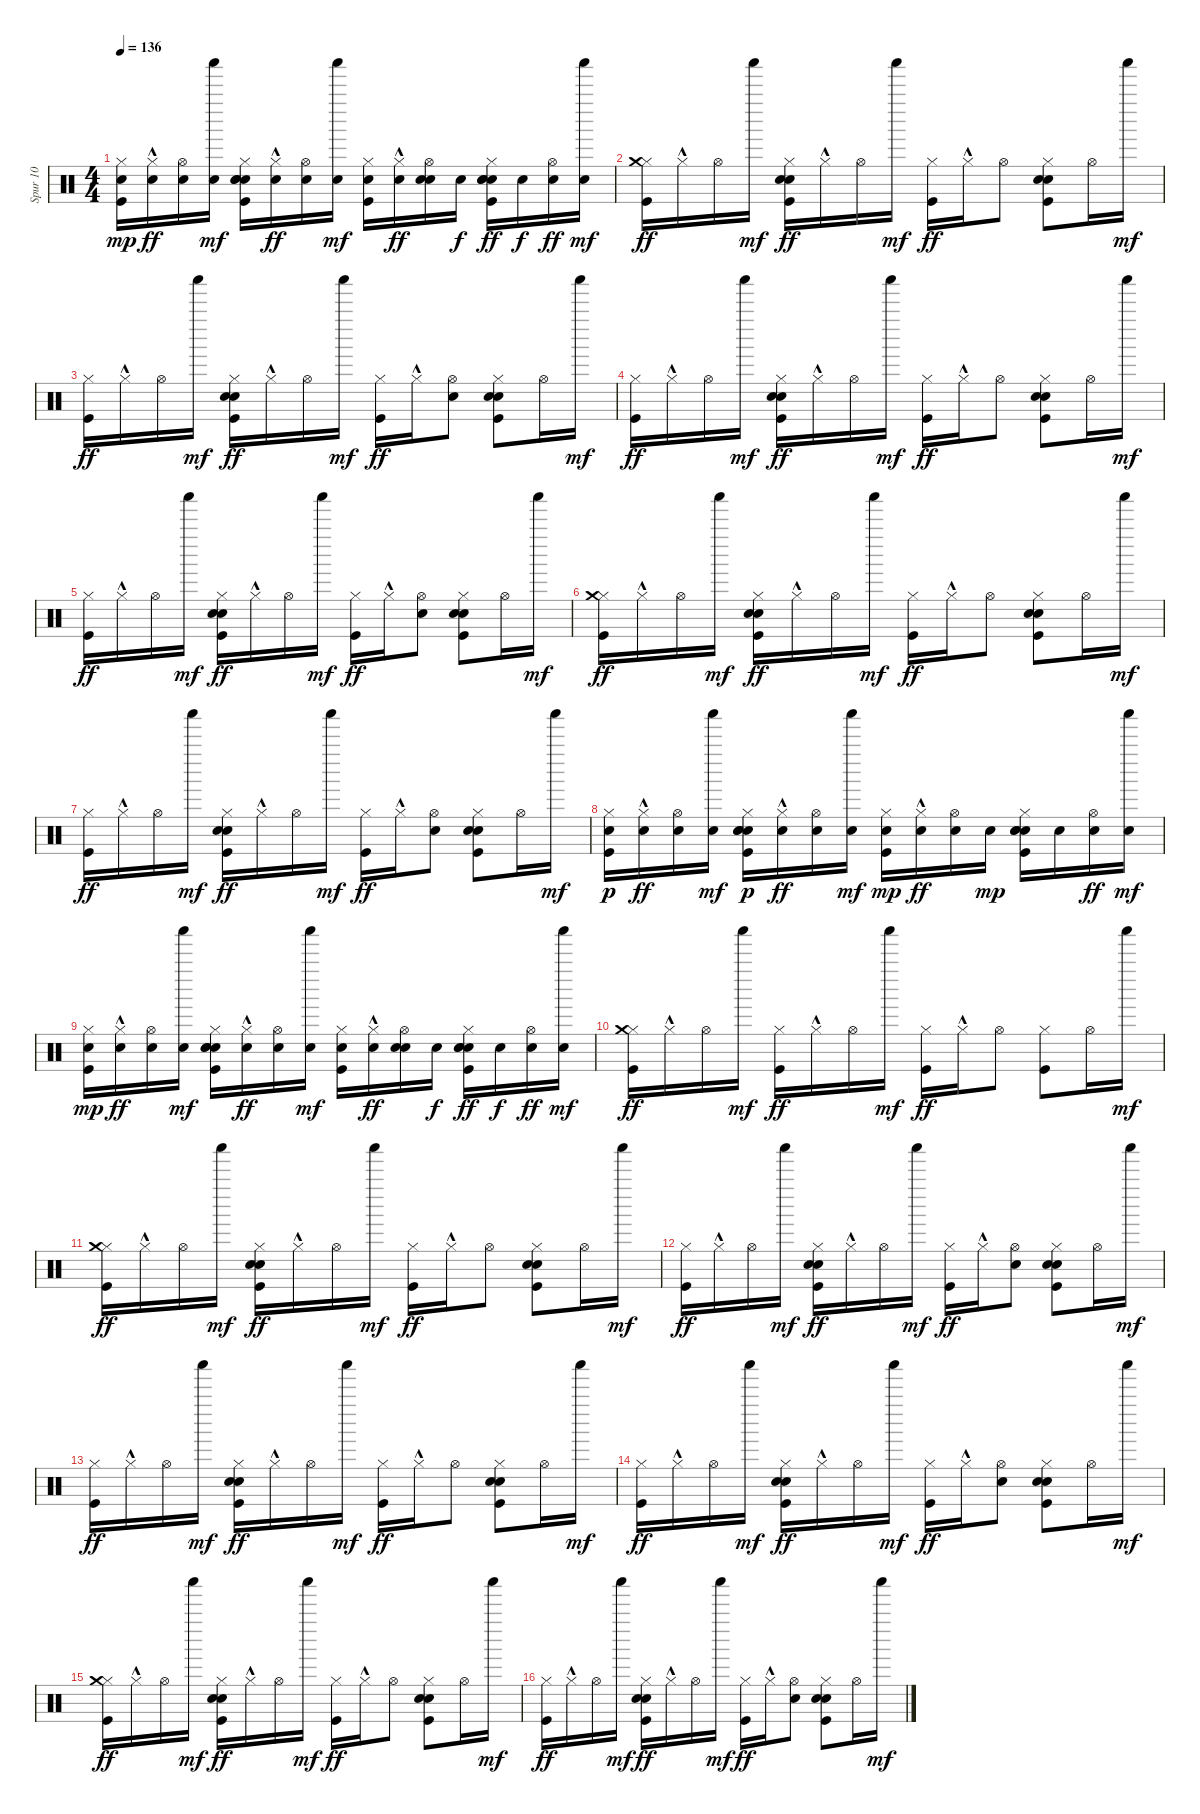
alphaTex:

\track ("Spur 10" "Spur 10") {instrument percussion}
\staff {score}
\articulation defaults
\ts (4 4)
\tempo 136
\clef neutral
\ks c
("Kick (hit)" "Snare (hit) 2" "Hi-Hat (closed)").16{dy mp} ("Snare (hit) 2" "Hi-Hat (closed)"{hac}).16{dy ff} ("Snare (hit) 2" "Hi-Hat (open)").16 ("Snare (hit) 2" "Shaker (hit)").16{dy mf} ("Kick (hit)" "Electric Snare (hit)" "Snare (hit) 2" "Hi-Hat (closed)" "Hand Clap (hit)").16 ("Snare (hit) 2" "Hi-Hat (closed)"{hac}).16{dy ff} ("Snare (hit) 2" "Hi-Hat (open)").16 ("Snare (hit) 2" "Shaker (hit)").16{dy mf} ("Kick (hit)" "Snare (hit) 2" "Hi-Hat (closed)").16 ("Snare (hit) 2" "Hi-Hat (closed)"{hac}).16{dy ff} ("Snare (hit) 2" "Hi-Hat (open)" "Hand Clap (hit)").16 "Snare (hit) 2".16{dy f} ("Kick (hit)" "Electric Snare (hit)" "Snare (hit) 2" "Hi-Hat (closed)" "Hand Clap (hit)").16{dy ff} "Snare (hit) 2".16{dy f} ("Snare (hit) 2" "Hi-Hat (open)").16{dy ff} ("Snare (hit) 2" "Shaker (hit)").16{dy mf} |
("Kick (hit)" "Hi-Hat (closed)" "Crash medium (hit)").16{dy ff} "Hi-Hat (closed)"{hac}.16 "Hi-Hat (open)".16 "Shaker (hit)".16{dy mf} ("Kick (hit)" "Electric Snare (hit)" "Hi-Hat (closed)" "Hand Clap (hit)").16{dy ff} "Hi-Hat (closed)"{hac}.16 "Hi-Hat (open)".16 "Shaker (hit)".16{dy mf} ("Kick (hit)" "Hi-Hat (closed)").16{dy ff} "Hi-Hat (closed)"{hac}.16 "Hi-Hat (open)".8 ("Kick (hit)" "Electric Snare (hit)" "Hi-Hat (closed)" "Hand Clap (hit)").8 "Hi-Hat (open)".16 "Shaker (hit)".16{dy mf} |
("Kick (hit)" "Hi-Hat (closed)").16{dy ff} "Hi-Hat (closed)"{hac}.16 "Hi-Hat (open)".16 "Shaker (hit)".16{dy mf} ("Kick (hit)" "Electric Snare (hit)" "Hi-Hat (closed)" "Hand Clap (hit)").16{dy ff} "Hi-Hat (closed)"{hac}.16 "Hi-Hat (open)".16 "Shaker (hit)".16{dy mf} ("Kick (hit)" "Hi-Hat (closed)").16{dy ff} "Hi-Hat (closed)"{hac}.16 ("Hi-Hat (open)" "Hand Clap (hit)").8 ("Kick (hit)" "Electric Snare (hit)" "Hi-Hat (closed)" "Hand Clap (hit)").8 "Hi-Hat (open)".16 "Shaker (hit)".16{dy mf} |
("Kick (hit)" "Hi-Hat (closed)").16{dy ff} "Hi-Hat (closed)"{hac}.16 "Hi-Hat (open)".16 "Shaker (hit)".16{dy mf} ("Kick (hit)" "Electric Snare (hit)" "Hi-Hat (closed)" "Hand Clap (hit)").16{dy ff} "Hi-Hat (closed)"{hac}.16 "Hi-Hat (open)".16 "Shaker (hit)".16{dy mf} ("Kick (hit)" "Hi-Hat (closed)").16{dy ff} "Hi-Hat (closed)"{hac}.16 "Hi-Hat (open)".8 ("Kick (hit)" "Electric Snare (hit)" "Hi-Hat (closed)" "Hand Clap (hit)").8 "Hi-Hat (open)".16 "Shaker (hit)".16{dy mf} |
("Kick (hit)" "Hi-Hat (closed)").16{dy ff} "Hi-Hat (closed)"{hac}.16 "Hi-Hat (open)".16 "Shaker (hit)".16{dy mf} ("Kick (hit)" "Electric Snare (hit)" "Hi-Hat (closed)" "Hand Clap (hit)").16{dy ff} "Hi-Hat (closed)"{hac}.16 "Hi-Hat (open)".16 "Shaker (hit)".16{dy mf} ("Kick (hit)" "Hi-Hat (closed)").16{dy ff} "Hi-Hat (closed)"{hac}.16 ("Hi-Hat (open)" "Hand Clap (hit)").8 ("Kick (hit)" "Electric Snare (hit)" "Hi-Hat (closed)" "Hand Clap (hit)").8 "Hi-Hat (open)".16 "Shaker (hit)".16{dy mf} |
("Kick (hit)" "Hi-Hat (closed)" "Crash medium (hit)").16{dy ff} "Hi-Hat (closed)"{hac}.16 "Hi-Hat (open)".16 "Shaker (hit)".16{dy mf} ("Kick (hit)" "Electric Snare (hit)" "Hi-Hat (closed)" "Hand Clap (hit)").16{dy ff} "Hi-Hat (closed)"{hac}.16 "Hi-Hat (open)".16 "Shaker (hit)".16{dy mf} ("Kick (hit)" "Hi-Hat (closed)").16{dy ff} "Hi-Hat (closed)"{hac}.16 "Hi-Hat (open)".8 ("Kick (hit)" "Electric Snare (hit)" "Hi-Hat (closed)" "Hand Clap (hit)").8 "Hi-Hat (open)".16 "Shaker (hit)".16{dy mf} |
("Kick (hit)" "Hi-Hat (closed)").16{dy ff} "Hi-Hat (closed)"{hac}.16 "Hi-Hat (open)".16 "Shaker (hit)".16{dy mf} ("Kick (hit)" "Electric Snare (hit)" "Hi-Hat (closed)" "Hand Clap (hit)").16{dy ff} "Hi-Hat (closed)"{hac}.16 "Hi-Hat (open)".16 "Shaker (hit)".16{dy mf} ("Kick (hit)" "Hi-Hat (closed)").16{dy ff} "Hi-Hat (closed)"{hac}.16 ("Hi-Hat (open)" "Hand Clap (hit)").8 ("Kick (hit)" "Electric Snare (hit)" "Hi-Hat (closed)" "Hand Clap (hit)").8 "Hi-Hat (open)".16 "Shaker (hit)".16{dy mf} |
("Kick (hit)" "Snare (hit) 2" "Hi-Hat (closed)").16{dy p} ("Snare (hit) 2" "Hi-Hat (closed)"{hac}).16{dy ff} ("Snare (hit) 2" "Hi-Hat (open)").16 ("Snare (hit) 2" "Shaker (hit)").16{dy mf} ("Kick (hit)" "Electric Snare (hit)" "Snare (hit) 2" "Hi-Hat (closed)" "Hand Clap (hit)").16{dy p} ("Snare (hit) 2" "Hi-Hat (closed)"{hac}).16{dy ff} ("Snare (hit) 2" "Hi-Hat (open)").16 ("Snare (hit) 2" "Shaker (hit)").16{dy mf} ("Kick (hit)" "Snare (hit) 2" "Hi-Hat (closed)").16{dy mp} ("Snare (hit) 2" "Hi-Hat (closed)"{hac}).16{dy ff} ("Snare (hit) 2" "Hi-Hat (open)").16 "Snare (hit) 2".16{dy mp} ("Kick (hit)" "Electric Snare (hit)" "Snare (hit) 2" "Hi-Hat (closed)" "Hand Clap (hit)").16 "Snare (hit) 2".16 ("Snare (hit) 2" "Hi-Hat (open)").16{dy ff} ("Snare (hit) 2" "Shaker (hit)").16{dy mf} |
("Kick (hit)" "Snare (hit) 2" "Hi-Hat (closed)").16{dy mp} ("Snare (hit) 2" "Hi-Hat (closed)"{hac}).16{dy ff} ("Snare (hit) 2" "Hi-Hat (open)").16 ("Snare (hit) 2" "Shaker (hit)").16{dy mf} ("Kick (hit)" "Electric Snare (hit)" "Snare (hit) 2" "Hi-Hat (closed)" "Hand Clap (hit)").16 ("Snare (hit) 2" "Hi-Hat (closed)"{hac}).16{dy ff} ("Snare (hit) 2" "Hi-Hat (open)").16 ("Snare (hit) 2" "Shaker (hit)").16{dy mf} ("Kick (hit)" "Snare (hit) 2" "Hi-Hat (closed)").16 ("Snare (hit) 2" "Hi-Hat (closed)"{hac}).16{dy ff} ("Snare (hit) 2" "Hi-Hat (open)" "Hand Clap (hit)").16 "Snare (hit) 2".16{dy f} ("Kick (hit)" "Electric Snare (hit)" "Snare (hit) 2" "Hi-Hat (closed)" "Hand Clap (hit)").16{dy ff} "Snare (hit) 2".16{dy f} ("Snare (hit) 2" "Hi-Hat (open)").16{dy ff} ("Snare (hit) 2" "Shaker (hit)").16{dy mf} |
("Kick (hit)" "Hi-Hat (closed)" "Crash medium (hit)").16{dy ff} "Hi-Hat (closed)"{hac}.16 "Hi-Hat (open)".16 "Shaker (hit)".16{dy mf} ("Kick (hit)" "Hi-Hat (closed)").16{dy ff} "Hi-Hat (closed)"{hac}.16 "Hi-Hat (open)".16 "Shaker (hit)".16{dy mf} ("Kick (hit)" "Hi-Hat (closed)").16{dy ff} "Hi-Hat (closed)"{hac}.16 "Hi-Hat (open)".8 ("Kick (hit)" "Hi-Hat (closed)").8 "Hi-Hat (open)".16 "Shaker (hit)".16{dy mf} |
("Kick (hit)" "Hi-Hat (closed)" "Crash medium (hit)").16{dy ff} "Hi-Hat (closed)"{hac}.16 "Hi-Hat (open)".16 "Shaker (hit)".16{dy mf} ("Kick (hit)" "Electric Snare (hit)" "Hi-Hat (closed)" "Hand Clap (hit)").16{dy ff} "Hi-Hat (closed)"{hac}.16 "Hi-Hat (open)".16 "Shaker (hit)".16{dy mf} ("Kick (hit)" "Hi-Hat (closed)").16{dy ff} "Hi-Hat (closed)"{hac}.16 "Hi-Hat (open)".8 ("Kick (hit)" "Electric Snare (hit)" "Hi-Hat (closed)" "Hand Clap (hit)").8 "Hi-Hat (open)".16 "Shaker (hit)".16{dy mf} |
("Kick (hit)" "Hi-Hat (closed)").16{dy ff} "Hi-Hat (closed)"{hac}.16 "Hi-Hat (open)".16 "Shaker (hit)".16{dy mf} ("Kick (hit)" "Electric Snare (hit)" "Hi-Hat (closed)" "Hand Clap (hit)").16{dy ff} "Hi-Hat (closed)"{hac}.16 "Hi-Hat (open)".16 "Shaker (hit)".16{dy mf} ("Kick (hit)" "Hi-Hat (closed)").16{dy ff} "Hi-Hat (closed)"{hac}.16 ("Hi-Hat (open)" "Hand Clap (hit)").8 ("Kick (hit)" "Electric Snare (hit)" "Hi-Hat (closed)" "Hand Clap (hit)").8 "Hi-Hat (open)".16 "Shaker (hit)".16{dy mf} |
("Kick (hit)" "Hi-Hat (closed)").16{dy ff} "Hi-Hat (closed)"{hac}.16 "Hi-Hat (open)".16 "Shaker (hit)".16{dy mf} ("Kick (hit)" "Electric Snare (hit)" "Hi-Hat (closed)" "Hand Clap (hit)").16{dy ff} "Hi-Hat (closed)"{hac}.16 "Hi-Hat (open)".16 "Shaker (hit)".16{dy mf} ("Kick (hit)" "Hi-Hat (closed)").16{dy ff} "Hi-Hat (closed)"{hac}.16 "Hi-Hat (open)".8 ("Kick (hit)" "Electric Snare (hit)" "Hi-Hat (closed)" "Hand Clap (hit)").8 "Hi-Hat (open)".16 "Shaker (hit)".16{dy mf} |
("Kick (hit)" "Hi-Hat (closed)").16{dy ff} "Hi-Hat (closed)"{hac}.16 "Hi-Hat (open)".16 "Shaker (hit)".16{dy mf} ("Kick (hit)" "Electric Snare (hit)" "Hi-Hat (closed)" "Hand Clap (hit)").16{dy ff} "Hi-Hat (closed)"{hac}.16 "Hi-Hat (open)".16 "Shaker (hit)".16{dy mf} ("Kick (hit)" "Hi-Hat (closed)").16{dy ff} "Hi-Hat (closed)"{hac}.16 ("Hi-Hat (open)" "Hand Clap (hit)").8 ("Kick (hit)" "Electric Snare (hit)" "Hi-Hat (closed)" "Hand Clap (hit)").8 "Hi-Hat (open)".16 "Shaker (hit)".16{dy mf} |
("Kick (hit)" "Hi-Hat (closed)" "Crash medium (hit)").16{dy ff} "Hi-Hat (closed)"{hac}.16 "Hi-Hat (open)".16 "Shaker (hit)".16{dy mf} ("Kick (hit)" "Electric Snare (hit)" "Hi-Hat (closed)" "Hand Clap (hit)").16{dy ff} "Hi-Hat (closed)"{hac}.16 "Hi-Hat (open)".16 "Shaker (hit)".16{dy mf} ("Kick (hit)" "Hi-Hat (closed)").16{dy ff} "Hi-Hat (closed)"{hac}.16 "Hi-Hat (open)".8 ("Kick (hit)" "Electric Snare (hit)" "Hi-Hat (closed)" "Hand Clap (hit)").8 "Hi-Hat (open)".16 "Shaker (hit)".16{dy mf} |
("Kick (hit)" "Hi-Hat (closed)").16{dy ff} "Hi-Hat (closed)"{hac}.16 "Hi-Hat (open)".16 "Shaker (hit)".16{dy mf} ("Kick (hit)" "Electric Snare (hit)" "Hi-Hat (closed)" "Hand Clap (hit)").16{dy ff} "Hi-Hat (closed)"{hac}.16 "Hi-Hat (open)".16 "Shaker (hit)".16{dy mf} ("Kick (hit)" "Hi-Hat (closed)").16{dy ff} "Hi-Hat (closed)"{hac}.16 ("Hi-Hat (open)" "Hand Clap (hit)").8 ("Kick (hit)" "Electric Snare (hit)" "Hi-Hat (closed)" "Hand Clap (hit)").8 "Hi-Hat (open)".16 "Shaker (hit)".16{dy mf}
